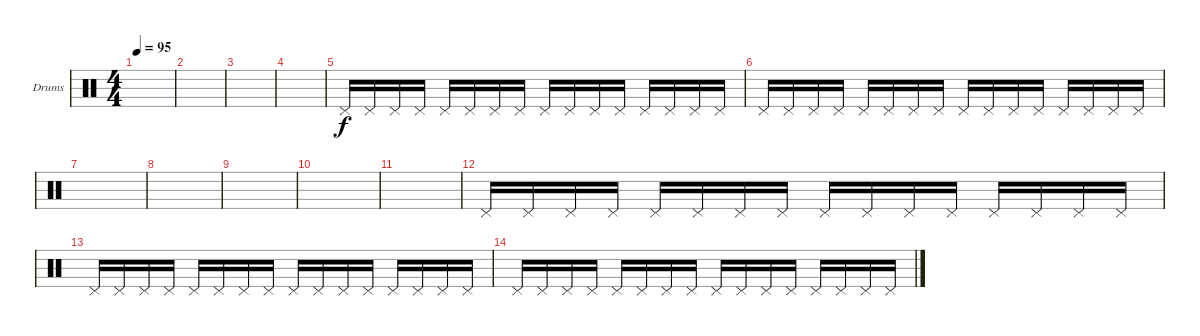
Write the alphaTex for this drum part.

\defaultSystemsLayout 4
\bracketExtendMode groupsimilarinstruments
\firstSystemTrackNameOrientation horizontal
\otherSystemsTrackNameOrientation horizontal
\track ("Drumkit" "Drums") {instrument percussion}
\staff {score}
\articulation defaults
\ts (4 4)
\tempo 95
\clef neutral
\ks c
|
|
|
|
"Pedal Hi-Hat (hit)".16{dy f} "Pedal Hi-Hat (hit)".16 "Pedal Hi-Hat (hit)".16 "Pedal Hi-Hat (hit)".16 "Pedal Hi-Hat (hit)".16 "Pedal Hi-Hat (hit)".16 "Pedal Hi-Hat (hit)".16 "Pedal Hi-Hat (hit)".16 "Pedal Hi-Hat (hit)".16 "Pedal Hi-Hat (hit)".16 "Pedal Hi-Hat (hit)".16 "Pedal Hi-Hat (hit)".16 "Pedal Hi-Hat (hit)".16 "Pedal Hi-Hat (hit)".16 "Pedal Hi-Hat (hit)".16 "Pedal Hi-Hat (hit)".16 |
"Pedal Hi-Hat (hit)".16 "Pedal Hi-Hat (hit)".16 "Pedal Hi-Hat (hit)".16 "Pedal Hi-Hat (hit)".16 "Pedal Hi-Hat (hit)".16 "Pedal Hi-Hat (hit)".16 "Pedal Hi-Hat (hit)".16 "Pedal Hi-Hat (hit)".16 "Pedal Hi-Hat (hit)".16 "Pedal Hi-Hat (hit)".16 "Pedal Hi-Hat (hit)".16 "Pedal Hi-Hat (hit)".16 "Pedal Hi-Hat (hit)".16 "Pedal Hi-Hat (hit)".16 "Pedal Hi-Hat (hit)".16 "Pedal Hi-Hat (hit)".16 |
|
|
|
|
|
"Pedal Hi-Hat (hit)".16 "Pedal Hi-Hat (hit)".16 "Pedal Hi-Hat (hit)".16 "Pedal Hi-Hat (hit)".16 "Pedal Hi-Hat (hit)".16 "Pedal Hi-Hat (hit)".16 "Pedal Hi-Hat (hit)".16 "Pedal Hi-Hat (hit)".16 "Pedal Hi-Hat (hit)".16 "Pedal Hi-Hat (hit)".16 "Pedal Hi-Hat (hit)".16 "Pedal Hi-Hat (hit)".16 "Pedal Hi-Hat (hit)".16 "Pedal Hi-Hat (hit)".16 "Pedal Hi-Hat (hit)".16 "Pedal Hi-Hat (hit)".16 |
"Pedal Hi-Hat (hit)".16 "Pedal Hi-Hat (hit)".16 "Pedal Hi-Hat (hit)".16 "Pedal Hi-Hat (hit)".16 "Pedal Hi-Hat (hit)".16 "Pedal Hi-Hat (hit)".16 "Pedal Hi-Hat (hit)".16 "Pedal Hi-Hat (hit)".16 "Pedal Hi-Hat (hit)".16 "Pedal Hi-Hat (hit)".16 "Pedal Hi-Hat (hit)".16 "Pedal Hi-Hat (hit)".16 "Pedal Hi-Hat (hit)".16 "Pedal Hi-Hat (hit)".16 "Pedal Hi-Hat (hit)".16 "Pedal Hi-Hat (hit)".16 |
"Pedal Hi-Hat (hit)".16 "Pedal Hi-Hat (hit)".16 "Pedal Hi-Hat (hit)".16 "Pedal Hi-Hat (hit)".16 "Pedal Hi-Hat (hit)".16 "Pedal Hi-Hat (hit)".16 "Pedal Hi-Hat (hit)".16 "Pedal Hi-Hat (hit)".16 "Pedal Hi-Hat (hit)".16 "Pedal Hi-Hat (hit)".16 "Pedal Hi-Hat (hit)".16 "Pedal Hi-Hat (hit)".16 "Pedal Hi-Hat (hit)".16 "Pedal Hi-Hat (hit)".16 "Pedal Hi-Hat (hit)".16 "Pedal Hi-Hat (hit)".16
